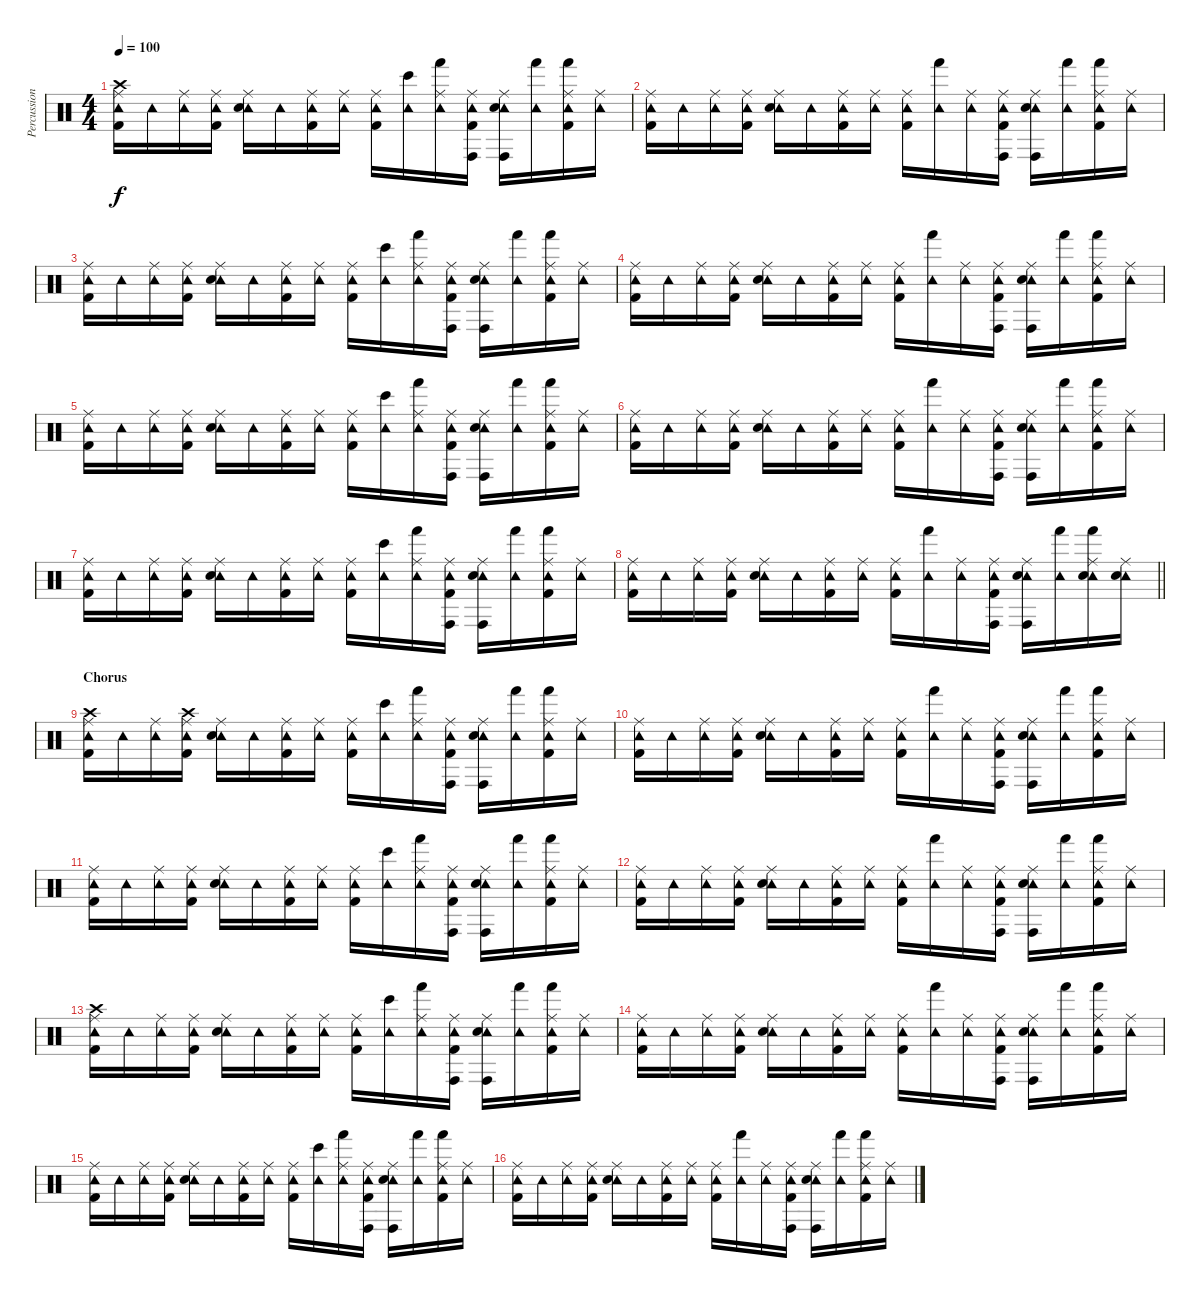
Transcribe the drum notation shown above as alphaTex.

\track ("Percussion" "Percussion") {instrument percussion}
\staff {score}
\articulation defaults
\ts (4 4)
\tempo 100
\clef neutral
\ks c
("Tambourine (hit)" "Ride (middle)" "Crash high (hit)" "Kick (hit) 2").16{dy f} "Tambourine (hit)".16 ("Tambourine (hit)" "Ride (middle)").16 ("Tambourine (hit)" "Ride (middle)" "Kick (hit) 2").16 ("Tambourine (hit)" "Ride (middle)" "Snare (hit) 2").16 "Tambourine (hit)".16 ("Tambourine (hit)" "Ride (middle)" "Kick (hit) 2").16 ("Tambourine (hit)" "Ride (middle)").16 ("Tambourine (hit)" "Ride (middle)" "Kick (hit) 2").16 ("Tambourine (hit)" "Bongo High (hit)").16 ("Tambourine (hit)" "Ride (middle)" "Hand (hit)").16 ("Tambourine (hit)" "Ride (middle)" "Conga high (hit)" "Kick (hit) 2").16 ("Tambourine (hit)" "Ride (middle)" "Conga high (hit)" "Snare (hit) 2").16 ("Tambourine (hit)" "Hand (hit)").16 ("Tambourine (hit)" "Ride (middle)" "Hand (hit)" "Kick (hit) 2").16 ("Tambourine (hit)" "Ride (middle)").16 |
("Tambourine (hit)" "Ride (middle)" "Kick (hit) 2").16 "Tambourine (hit)".16 ("Tambourine (hit)" "Ride (middle)").16 ("Tambourine (hit)" "Ride (middle)" "Kick (hit) 2").16 ("Tambourine (hit)" "Ride (middle)" "Snare (hit) 2").16 "Tambourine (hit)".16 ("Tambourine (hit)" "Ride (middle)" "Kick (hit) 2").16 ("Tambourine (hit)" "Ride (middle)").16 ("Tambourine (hit)" "Ride (middle)" "Kick (hit) 2").16 ("Tambourine (hit)" "Hand (hit)").16 ("Tambourine (hit)" "Ride (middle)").16 ("Tambourine (hit)" "Ride (middle)" "Conga high (hit)" "Kick (hit) 2").16 ("Tambourine (hit)" "Ride (middle)" "Conga high (hit)" "Snare (hit) 2").16 ("Tambourine (hit)" "Hand (hit)").16 ("Tambourine (hit)" "Ride (middle)" "Hand (hit)" "Kick (hit) 2").16 ("Tambourine (hit)" "Ride (middle)").16 |
("Tambourine (hit)" "Ride (middle)" "Kick (hit) 2").16 "Tambourine (hit)".16 ("Tambourine (hit)" "Ride (middle)").16 ("Tambourine (hit)" "Ride (middle)" "Kick (hit) 2").16 ("Tambourine (hit)" "Ride (middle)" "Snare (hit) 2").16 "Tambourine (hit)".16 ("Tambourine (hit)" "Ride (middle)" "Kick (hit) 2").16 ("Tambourine (hit)" "Ride (middle)").16 ("Tambourine (hit)" "Ride (middle)" "Kick (hit) 2").16 ("Tambourine (hit)" "Bongo High (hit)").16 ("Tambourine (hit)" "Ride (middle)" "Hand (hit)").16 ("Tambourine (hit)" "Ride (middle)" "Conga high (hit)" "Kick (hit) 2").16 ("Tambourine (hit)" "Ride (middle)" "Conga high (hit)" "Snare (hit) 2").16 ("Tambourine (hit)" "Hand (hit)").16 ("Tambourine (hit)" "Ride (middle)" "Hand (hit)" "Kick (hit) 2").16 ("Tambourine (hit)" "Ride (middle)").16 |
("Tambourine (hit)" "Ride (middle)" "Kick (hit) 2").16 "Tambourine (hit)".16 ("Tambourine (hit)" "Ride (middle)").16 ("Tambourine (hit)" "Ride (middle)" "Kick (hit) 2").16 ("Tambourine (hit)" "Ride (middle)" "Snare (hit) 2").16 "Tambourine (hit)".16 ("Tambourine (hit)" "Ride (middle)" "Kick (hit) 2").16 ("Tambourine (hit)" "Ride (middle)").16 ("Tambourine (hit)" "Ride (middle)" "Kick (hit) 2").16 ("Tambourine (hit)" "Hand (hit)").16 ("Tambourine (hit)" "Ride (middle)").16 ("Tambourine (hit)" "Ride (middle)" "Conga high (hit)" "Kick (hit) 2").16 ("Tambourine (hit)" "Ride (middle)" "Conga high (hit)" "Snare (hit) 2").16 ("Tambourine (hit)" "Hand (hit)").16 ("Tambourine (hit)" "Ride (middle)" "Hand (hit)" "Kick (hit) 2").16 ("Tambourine (hit)" "Ride (middle)").16 |
("Tambourine (hit)" "Ride (middle)" "Kick (hit) 2").16 "Tambourine (hit)".16 ("Tambourine (hit)" "Ride (middle)").16 ("Tambourine (hit)" "Ride (middle)" "Kick (hit) 2").16 ("Tambourine (hit)" "Ride (middle)" "Snare (hit) 2").16 "Tambourine (hit)".16 ("Tambourine (hit)" "Ride (middle)" "Kick (hit) 2").16 ("Tambourine (hit)" "Ride (middle)").16 ("Tambourine (hit)" "Ride (middle)" "Kick (hit) 2").16 ("Tambourine (hit)" "Bongo High (hit)").16 ("Tambourine (hit)" "Ride (middle)" "Hand (hit)").16 ("Tambourine (hit)" "Ride (middle)" "Conga high (hit)" "Kick (hit) 2").16 ("Tambourine (hit)" "Ride (middle)" "Conga high (hit)" "Snare (hit) 2").16 ("Tambourine (hit)" "Hand (hit)").16 ("Tambourine (hit)" "Ride (middle)" "Hand (hit)" "Kick (hit) 2").16 ("Tambourine (hit)" "Ride (middle)").16 |
("Tambourine (hit)" "Ride (middle)" "Kick (hit) 2").16 "Tambourine (hit)".16 ("Tambourine (hit)" "Ride (middle)").16 ("Tambourine (hit)" "Ride (middle)" "Kick (hit) 2").16 ("Tambourine (hit)" "Ride (middle)" "Snare (hit) 2").16 "Tambourine (hit)".16 ("Tambourine (hit)" "Ride (middle)" "Kick (hit) 2").16 ("Tambourine (hit)" "Ride (middle)").16 ("Tambourine (hit)" "Ride (middle)" "Kick (hit) 2").16 ("Tambourine (hit)" "Hand (hit)").16 ("Tambourine (hit)" "Ride (middle)").16 ("Tambourine (hit)" "Ride (middle)" "Conga high (hit)" "Kick (hit) 2").16 ("Tambourine (hit)" "Ride (middle)" "Conga high (hit)" "Snare (hit) 2").16 ("Tambourine (hit)" "Hand (hit)").16 ("Tambourine (hit)" "Ride (middle)" "Hand (hit)" "Kick (hit) 2").16 ("Tambourine (hit)" "Ride (middle)").16 |
("Tambourine (hit)" "Ride (middle)" "Kick (hit) 2").16 "Tambourine (hit)".16 ("Tambourine (hit)" "Ride (middle)").16 ("Tambourine (hit)" "Ride (middle)" "Kick (hit) 2").16 ("Tambourine (hit)" "Ride (middle)" "Snare (hit) 2").16 "Tambourine (hit)".16 ("Tambourine (hit)" "Ride (middle)" "Kick (hit) 2").16 ("Tambourine (hit)" "Ride (middle)").16 ("Tambourine (hit)" "Ride (middle)" "Kick (hit) 2").16 ("Tambourine (hit)" "Bongo High (hit)").16 ("Tambourine (hit)" "Ride (middle)" "Hand (hit)").16 ("Tambourine (hit)" "Ride (middle)" "Conga high (hit)" "Kick (hit) 2").16 ("Tambourine (hit)" "Ride (middle)" "Conga high (hit)" "Snare (hit) 2").16 ("Tambourine (hit)" "Hand (hit)").16 ("Tambourine (hit)" "Ride (middle)" "Hand (hit)" "Kick (hit) 2").16 ("Tambourine (hit)" "Ride (middle)").16 |
\barLineRight lightlight
("Tambourine (hit)" "Ride (middle)" "Kick (hit) 2").16 "Tambourine (hit)".16 ("Tambourine (hit)" "Ride (middle)").16 ("Tambourine (hit)" "Ride (middle)" "Kick (hit) 2").16 ("Tambourine (hit)" "Ride (middle)" "Snare (hit) 2").16 "Tambourine (hit)".16 ("Tambourine (hit)" "Ride (middle)" "Kick (hit) 2").16 ("Tambourine (hit)" "Ride (middle)").16 ("Tambourine (hit)" "Ride (middle)" "Kick (hit) 2").16 ("Tambourine (hit)" "Hand (hit)").16 ("Tambourine (hit)" "Ride (middle)").16 ("Tambourine (hit)" "Ride (middle)" "Conga high (hit)" "Kick (hit) 2").16 ("Tambourine (hit)" "Ride (middle)" "Conga high (hit)" "Snare (hit) 2").16 ("Tambourine (hit)" "Hand (hit)").16 ("Tambourine (hit)" "Ride (middle)" "Hand (hit)" "Snare (hit) 2").16 ("Tambourine (hit)" "Ride (middle)" "Snare (hit) 2").16 |
\section ("" "Chorus")
("Tambourine (hit)" "Ride (middle)" "Crash high (hit)" "Kick (hit) 2").16 "Tambourine (hit)".16 ("Tambourine (hit)" "Ride (middle)").16 ("Tambourine (hit)" "Ride (middle)" "Crash high (hit)" "Kick (hit) 2").16 ("Tambourine (hit)" "Ride (middle)" "Snare (hit) 2").16 "Tambourine (hit)".16 ("Tambourine (hit)" "Ride (middle)" "Kick (hit) 2").16 ("Tambourine (hit)" "Ride (middle)").16 ("Tambourine (hit)" "Ride (middle)" "Kick (hit) 2").16 ("Tambourine (hit)" "Bongo High (hit)").16 ("Tambourine (hit)" "Ride (middle)" "Hand (hit)").16 ("Tambourine (hit)" "Ride (middle)" "Conga high (hit)" "Kick (hit) 2").16 ("Tambourine (hit)" "Ride (middle)" "Conga high (hit)" "Snare (hit) 2").16 ("Tambourine (hit)" "Hand (hit)").16 ("Tambourine (hit)" "Ride (middle)" "Hand (hit)" "Kick (hit) 2").16 ("Tambourine (hit)" "Ride (middle)").16 |
("Tambourine (hit)" "Ride (middle)" "Kick (hit) 2").16 "Tambourine (hit)".16 ("Tambourine (hit)" "Ride (middle)").16 ("Tambourine (hit)" "Ride (middle)" "Kick (hit) 2").16 ("Tambourine (hit)" "Ride (middle)" "Snare (hit) 2").16 "Tambourine (hit)".16 ("Tambourine (hit)" "Ride (middle)" "Kick (hit) 2").16 ("Tambourine (hit)" "Ride (middle)").16 ("Tambourine (hit)" "Ride (middle)" "Kick (hit) 2").16 ("Tambourine (hit)" "Hand (hit)").16 ("Tambourine (hit)" "Ride (middle)").16 ("Tambourine (hit)" "Ride (middle)" "Conga high (hit)" "Kick (hit) 2").16 ("Tambourine (hit)" "Ride (middle)" "Conga high (hit)" "Snare (hit) 2").16 ("Tambourine (hit)" "Hand (hit)").16 ("Tambourine (hit)" "Ride (middle)" "Hand (hit)" "Kick (hit) 2").16 ("Tambourine (hit)" "Ride (middle)").16 |
("Tambourine (hit)" "Ride (middle)" "Kick (hit) 2").16 "Tambourine (hit)".16 ("Tambourine (hit)" "Ride (middle)").16 ("Tambourine (hit)" "Ride (middle)" "Kick (hit) 2").16 ("Tambourine (hit)" "Ride (middle)" "Snare (hit) 2").16 "Tambourine (hit)".16 ("Tambourine (hit)" "Ride (middle)" "Kick (hit) 2").16 ("Tambourine (hit)" "Ride (middle)").16 ("Tambourine (hit)" "Ride (middle)" "Kick (hit) 2").16 ("Tambourine (hit)" "Bongo High (hit)").16 ("Tambourine (hit)" "Ride (middle)" "Hand (hit)").16 ("Tambourine (hit)" "Ride (middle)" "Conga high (hit)" "Kick (hit) 2").16 ("Tambourine (hit)" "Ride (middle)" "Conga high (hit)" "Snare (hit) 2").16 ("Tambourine (hit)" "Hand (hit)").16 ("Tambourine (hit)" "Ride (middle)" "Hand (hit)" "Kick (hit) 2").16 ("Tambourine (hit)" "Ride (middle)").16 |
("Tambourine (hit)" "Ride (middle)" "Kick (hit) 2").16 "Tambourine (hit)".16 ("Tambourine (hit)" "Ride (middle)").16 ("Tambourine (hit)" "Ride (middle)" "Kick (hit) 2").16 ("Tambourine (hit)" "Ride (middle)" "Snare (hit) 2").16 "Tambourine (hit)".16 ("Tambourine (hit)" "Ride (middle)" "Kick (hit) 2").16 ("Tambourine (hit)" "Ride (middle)").16 ("Tambourine (hit)" "Ride (middle)" "Kick (hit) 2").16 ("Tambourine (hit)" "Hand (hit)").16 ("Tambourine (hit)" "Ride (middle)").16 ("Tambourine (hit)" "Ride (middle)" "Conga high (hit)" "Kick (hit) 2").16 ("Tambourine (hit)" "Ride (middle)" "Conga high (hit)" "Snare (hit) 2").16 ("Tambourine (hit)" "Hand (hit)").16 ("Tambourine (hit)" "Ride (middle)" "Hand (hit)" "Kick (hit) 2").16 ("Tambourine (hit)" "Ride (middle)").16 |
("Tambourine (hit)" "Ride (middle)" "Crash high (hit)" "Kick (hit) 2").16 "Tambourine (hit)".16 ("Tambourine (hit)" "Ride (middle)").16 ("Tambourine (hit)" "Ride (middle)" "Kick (hit) 2").16 ("Tambourine (hit)" "Ride (middle)" "Snare (hit) 2").16 "Tambourine (hit)".16 ("Tambourine (hit)" "Ride (middle)" "Kick (hit) 2").16 ("Tambourine (hit)" "Ride (middle)").16 ("Tambourine (hit)" "Ride (middle)" "Kick (hit) 2").16 ("Tambourine (hit)" "Bongo High (hit)").16 ("Tambourine (hit)" "Ride (middle)" "Hand (hit)").16 ("Tambourine (hit)" "Ride (middle)" "Conga high (hit)" "Kick (hit) 2").16 ("Tambourine (hit)" "Ride (middle)" "Conga high (hit)" "Snare (hit) 2").16 ("Tambourine (hit)" "Hand (hit)").16 ("Tambourine (hit)" "Ride (middle)" "Hand (hit)" "Kick (hit) 2").16 ("Tambourine (hit)" "Ride (middle)").16 |
("Tambourine (hit)" "Ride (middle)" "Kick (hit) 2").16 "Tambourine (hit)".16 ("Tambourine (hit)" "Ride (middle)").16 ("Tambourine (hit)" "Ride (middle)" "Kick (hit) 2").16 ("Tambourine (hit)" "Ride (middle)" "Snare (hit) 2").16 "Tambourine (hit)".16 ("Tambourine (hit)" "Ride (middle)" "Kick (hit) 2").16 ("Tambourine (hit)" "Ride (middle)").16 ("Tambourine (hit)" "Ride (middle)" "Kick (hit) 2").16 ("Tambourine (hit)" "Hand (hit)").16 ("Tambourine (hit)" "Ride (middle)").16 ("Tambourine (hit)" "Ride (middle)" "Conga high (hit)" "Kick (hit) 2").16 ("Tambourine (hit)" "Ride (middle)" "Conga high (hit)" "Snare (hit) 2").16 ("Tambourine (hit)" "Hand (hit)").16 ("Tambourine (hit)" "Ride (middle)" "Hand (hit)" "Kick (hit) 2").16 ("Tambourine (hit)" "Ride (middle)").16 |
("Tambourine (hit)" "Ride (middle)" "Kick (hit) 2").16 "Tambourine (hit)".16 ("Tambourine (hit)" "Ride (middle)").16 ("Tambourine (hit)" "Ride (middle)" "Kick (hit) 2").16 ("Tambourine (hit)" "Ride (middle)" "Snare (hit) 2").16 "Tambourine (hit)".16 ("Tambourine (hit)" "Ride (middle)" "Kick (hit) 2").16 ("Tambourine (hit)" "Ride (middle)").16 ("Tambourine (hit)" "Ride (middle)" "Kick (hit) 2").16 ("Tambourine (hit)" "Bongo High (hit)").16 ("Tambourine (hit)" "Ride (middle)" "Hand (hit)").16 ("Tambourine (hit)" "Ride (middle)" "Conga high (hit)" "Kick (hit) 2").16 ("Tambourine (hit)" "Ride (middle)" "Conga high (hit)" "Snare (hit) 2").16 ("Tambourine (hit)" "Hand (hit)").16 ("Tambourine (hit)" "Ride (middle)" "Hand (hit)" "Kick (hit) 2").16 ("Tambourine (hit)" "Ride (middle)").16 |
("Tambourine (hit)" "Ride (middle)" "Kick (hit) 2").16 "Tambourine (hit)".16 ("Tambourine (hit)" "Ride (middle)").16 ("Tambourine (hit)" "Ride (middle)" "Kick (hit) 2").16 ("Tambourine (hit)" "Ride (middle)" "Snare (hit) 2").16 "Tambourine (hit)".16 ("Tambourine (hit)" "Ride (middle)" "Kick (hit) 2").16 ("Tambourine (hit)" "Ride (middle)").16 ("Tambourine (hit)" "Ride (middle)" "Kick (hit) 2").16 ("Tambourine (hit)" "Hand (hit)").16 ("Tambourine (hit)" "Ride (middle)").16 ("Tambourine (hit)" "Ride (middle)" "Conga high (hit)" "Kick (hit) 2").16 ("Tambourine (hit)" "Ride (middle)" "Conga high (hit)" "Snare (hit) 2").16 ("Tambourine (hit)" "Hand (hit)").16 ("Tambourine (hit)" "Ride (middle)" "Hand (hit)" "Kick (hit) 2").16 ("Tambourine (hit)" "Ride (middle)").16
